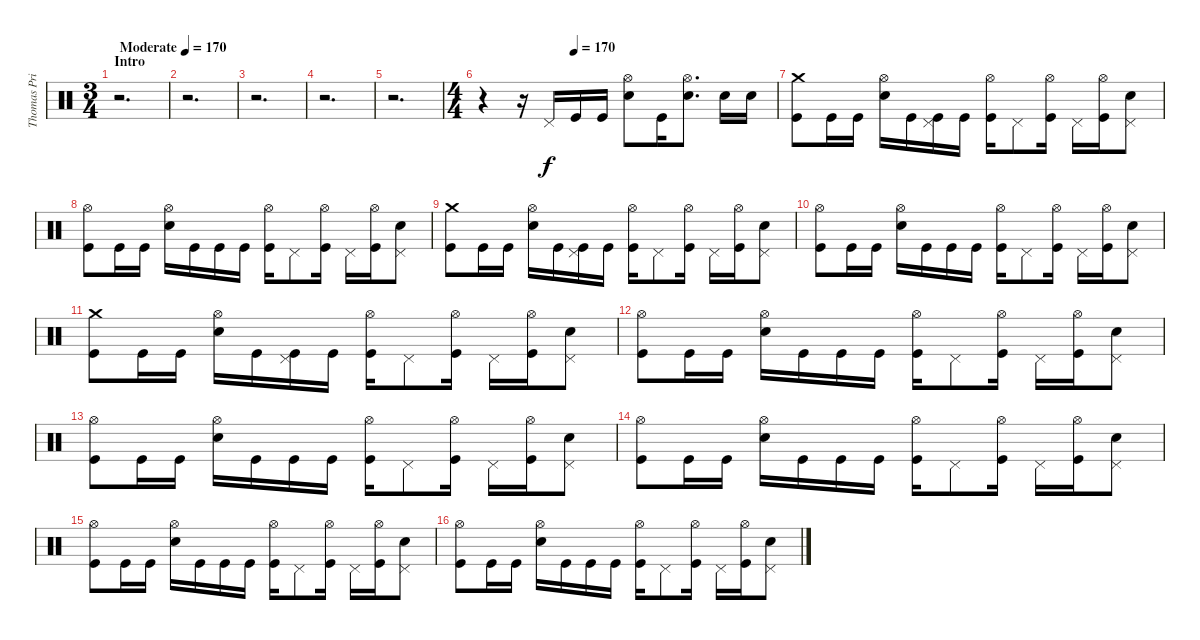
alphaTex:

\track ("Thomas Pridgen [Drum]" "Thomas Pri") {instrument percussion}
\staff {score}
\articulation defaults
\ts (3 4)
\section ("" "Intro")
\tempo (170 "Moderate")
\tempo 100
\tempo (170 "Moderate")
\clef neutral
\ks c
r.2{d dy f} |
r.2{d} |
r.2{d} |
r.2{d} |
r.2{d} |
\ts (4 4)
\tempo (170 0.3125)
r.4 r.16 "Pedal Hi-Hat (hit)".16 "Kick (hit)".16 "Kick (hit)".16 ("Hi-Hat (open)" "Electric Snare (hit)").8 "Kick (hit)".16 ("Hi-Hat (open)" "Electric Snare (hit)").8{d} "Electric Snare (hit)".16 "Electric Snare (hit)".16 |
("Crash medium (hit)" "Kick (hit)").8 "Kick (hit)".16 "Kick (hit)".16 ("Hi-Hat (open)" "Electric Snare (hit)").16 "Kick (hit)".16 ("Pedal Hi-Hat (hit)" "Kick (hit)").16 "Kick (hit)".16 ("Hi-Hat (open)" "Kick (hit)").16 "Pedal Hi-Hat (hit)".8 ("Hi-Hat (open)" "Kick (hit)").16 "Pedal Hi-Hat (hit)".16 ("Hi-Hat (open)" "Kick (hit)").16 ("Pedal Hi-Hat (hit)" "Electric Snare (hit)").8 |
("Hi-Hat (open)" "Kick (hit)").8 "Kick (hit)".16 "Kick (hit)".16 ("Hi-Hat (open)" "Electric Snare (hit)").16 "Kick (hit)".16 "Kick (hit)".16 "Kick (hit)".16 ("Hi-Hat (open)" "Kick (hit)").16 "Pedal Hi-Hat (hit)".8 ("Hi-Hat (open)" "Kick (hit)").16 "Pedal Hi-Hat (hit)".16 ("Hi-Hat (open)" "Kick (hit)").16 ("Pedal Hi-Hat (hit)" "Electric Snare (hit)").8 |
("Crash medium (hit)" "Kick (hit)").8 "Kick (hit)".16 "Kick (hit)".16 ("Hi-Hat (open)" "Electric Snare (hit)").16 "Kick (hit)".16 ("Pedal Hi-Hat (hit)" "Kick (hit)").16 "Kick (hit)".16 ("Hi-Hat (open)" "Kick (hit)").16 "Pedal Hi-Hat (hit)".8 ("Hi-Hat (open)" "Kick (hit)").16 "Pedal Hi-Hat (hit)".16 ("Hi-Hat (open)" "Kick (hit)").16 ("Pedal Hi-Hat (hit)" "Electric Snare (hit)").8 |
("Hi-Hat (open)" "Kick (hit)").8 "Kick (hit)".16 "Kick (hit)".16 ("Hi-Hat (open)" "Electric Snare (hit)").16 "Kick (hit)".16 "Kick (hit)".16 "Kick (hit)".16 ("Hi-Hat (open)" "Kick (hit)").16 "Pedal Hi-Hat (hit)".8 ("Hi-Hat (open)" "Kick (hit)").16 "Pedal Hi-Hat (hit)".16 ("Hi-Hat (open)" "Kick (hit)").16 ("Pedal Hi-Hat (hit)" "Electric Snare (hit)").8 |
("Crash medium (hit)" "Kick (hit)").8 "Kick (hit)".16 "Kick (hit)".16 ("Hi-Hat (open)" "Electric Snare (hit)").16 "Kick (hit)".16 ("Pedal Hi-Hat (hit)" "Kick (hit)").16 "Kick (hit)".16 ("Hi-Hat (open)" "Kick (hit)").16 "Pedal Hi-Hat (hit)".8 ("Hi-Hat (open)" "Kick (hit)").16 "Pedal Hi-Hat (hit)".16 ("Hi-Hat (open)" "Kick (hit)").16 ("Pedal Hi-Hat (hit)" "Electric Snare (hit)").8 |
("Hi-Hat (open)" "Kick (hit)").8 "Kick (hit)".16 "Kick (hit)".16 ("Hi-Hat (open)" "Electric Snare (hit)").16 "Kick (hit)".16 "Kick (hit)".16 "Kick (hit)".16 ("Hi-Hat (open)" "Kick (hit)").16 "Pedal Hi-Hat (hit)".8 ("Hi-Hat (open)" "Kick (hit)").16 "Pedal Hi-Hat (hit)".16 ("Hi-Hat (open)" "Kick (hit)").16 ("Pedal Hi-Hat (hit)" "Electric Snare (hit)").8 |
("Hi-Hat (open)" "Kick (hit)").8 "Kick (hit)".16 "Kick (hit)".16 ("Hi-Hat (open)" "Electric Snare (hit)").16 "Kick (hit)".16 "Kick (hit)".16 "Kick (hit)".16 ("Hi-Hat (open)" "Kick (hit)").16 "Pedal Hi-Hat (hit)".8 ("Hi-Hat (open)" "Kick (hit)").16 "Pedal Hi-Hat (hit)".16 ("Hi-Hat (open)" "Kick (hit)").16 ("Pedal Hi-Hat (hit)" "Electric Snare (hit)").8 |
("Hi-Hat (open)" "Kick (hit)").8 "Kick (hit)".16 "Kick (hit)".16 ("Hi-Hat (open)" "Electric Snare (hit)").16 "Kick (hit)".16 "Kick (hit)".16 "Kick (hit)".16 ("Hi-Hat (open)" "Kick (hit)").16 "Pedal Hi-Hat (hit)".8 ("Hi-Hat (open)" "Kick (hit)").16 "Pedal Hi-Hat (hit)".16 ("Hi-Hat (open)" "Kick (hit)").16 ("Pedal Hi-Hat (hit)" "Electric Snare (hit)").8 |
("Hi-Hat (open)" "Kick (hit)").8 "Kick (hit)".16 "Kick (hit)".16 ("Hi-Hat (open)" "Electric Snare (hit)").16 "Kick (hit)".16 "Kick (hit)".16 "Kick (hit)".16 ("Hi-Hat (open)" "Kick (hit)").16 "Pedal Hi-Hat (hit)".8 ("Hi-Hat (open)" "Kick (hit)").16 "Pedal Hi-Hat (hit)".16 ("Hi-Hat (open)" "Kick (hit)").16 ("Pedal Hi-Hat (hit)" "Electric Snare (hit)").8 |
("Hi-Hat (open)" "Kick (hit)").8 "Kick (hit)".16 "Kick (hit)".16 ("Hi-Hat (open)" "Electric Snare (hit)").16 "Kick (hit)".16 "Kick (hit)".16 "Kick (hit)".16 ("Hi-Hat (open)" "Kick (hit)").16 "Pedal Hi-Hat (hit)".8 ("Hi-Hat (open)" "Kick (hit)").16 "Pedal Hi-Hat (hit)".16 ("Hi-Hat (open)" "Kick (hit)").16 ("Pedal Hi-Hat (hit)" "Electric Snare (hit)").8
